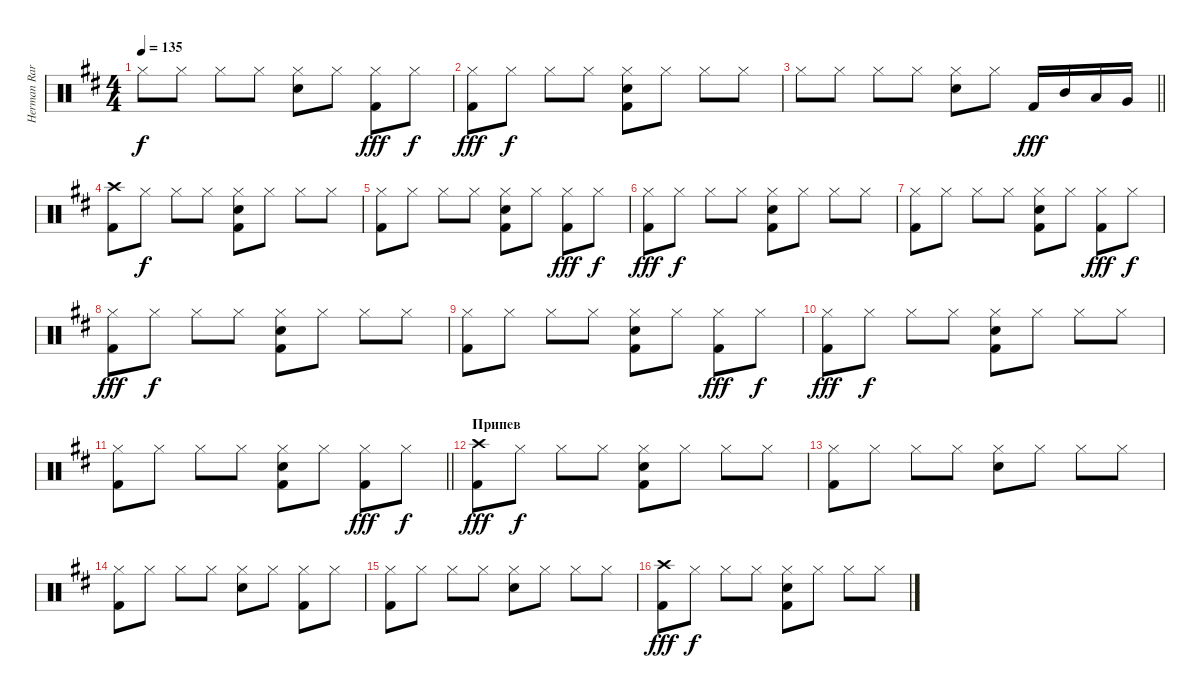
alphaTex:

\track ("Herman Rarebell" "Herman Rar") {instrument percussion}
\staff {score}
\articulation defaults
\ts (4 4)
\tempo 135
\clef neutral
\ks d "Hi-Hat (closed)".8{dy f} "Hi-Hat (closed)".8 "Hi-Hat (closed)".8 "Hi-Hat (closed)".8
("Hi-Hat (closed)" "Snare (hit) 2").8 "Hi-Hat (closed)".8 ("Hi-Hat (closed)" "Kick (hit) 2").8{dy fff} "Hi-Hat (closed)".8{dy f} |
("Hi-Hat (closed)" "Kick (hit) 2").8{dy fff} "Hi-Hat (closed)".8{dy f} "Hi-Hat (closed)".8 "Hi-Hat (closed)".8 ("Hi-Hat (closed)" "Snare (hit) 2" "Kick (hit) 2").8 "Hi-Hat (closed)".8 "Hi-Hat (closed)".8 "Hi-Hat (closed)".8 |
\barLineRight lightlight "Hi-Hat (closed)".8 "Hi-Hat (closed)".8 "Hi-Hat (closed)".8 "Hi-Hat (closed)".8
("Hi-Hat (closed)" "Snare (hit) 2").8 "Hi-Hat (closed)".8 "Kick (hit) 2".16{dy fff} "Mid Tom (hit)".16 "Low Tom (hit)".16 "Very Low Tom (hit)".16 |
("Crash high (hit)" "Kick (hit) 2").8 "Hi-Hat (closed)".8{dy f} "Hi-Hat (closed)".8 "Hi-Hat (closed)".8 ("Hi-Hat (closed)" "Snare (hit) 2" "Kick (hit) 2").8 "Hi-Hat (closed)".8 "Hi-Hat (closed)".8 "Hi-Hat (closed)".8 |
("Hi-Hat (closed)" "Kick (hit) 2").8 "Hi-Hat (closed)".8 "Hi-Hat (closed)".8 "Hi-Hat (closed)".8 ("Hi-Hat (closed)" "Snare (hit) 2" "Kick (hit) 2").8 "Hi-Hat (closed)".8 ("Hi-Hat (closed)" "Kick (hit) 2").8{dy fff} "Hi-Hat (closed)".8{dy f} |
("Hi-Hat (closed)" "Kick (hit) 2").8{dy fff} "Hi-Hat (closed)".8{dy f} "Hi-Hat (closed)".8 "Hi-Hat (closed)".8 ("Hi-Hat (closed)" "Snare (hit) 2" "Kick (hit) 2").8 "Hi-Hat (closed)".8 "Hi-Hat (closed)".8 "Hi-Hat (closed)".8 |
("Hi-Hat (closed)" "Kick (hit) 2").8 "Hi-Hat (closed)".8 "Hi-Hat (closed)".8 "Hi-Hat (closed)".8 ("Hi-Hat (closed)" "Snare (hit) 2" "Kick (hit) 2").8 "Hi-Hat (closed)".8 ("Hi-Hat (closed)" "Kick (hit) 2").8{dy fff} "Hi-Hat (closed)".8{dy f} |
("Hi-Hat (closed)" "Kick (hit) 2").8{dy fff} "Hi-Hat (closed)".8{dy f} "Hi-Hat (closed)".8 "Hi-Hat (closed)".8 ("Hi-Hat (closed)" "Snare (hit) 2" "Kick (hit) 2").8 "Hi-Hat (closed)".8 "Hi-Hat (closed)".8 "Hi-Hat (closed)".8 |
("Hi-Hat (closed)" "Kick (hit) 2").8 "Hi-Hat (closed)".8 "Hi-Hat (closed)".8 "Hi-Hat (closed)".8 ("Hi-Hat (closed)" "Snare (hit) 2" "Kick (hit) 2").8 "Hi-Hat (closed)".8 ("Hi-Hat (closed)" "Kick (hit) 2").8{dy fff} "Hi-Hat (closed)".8{dy f} |
("Hi-Hat (closed)" "Kick (hit) 2").8{dy fff} "Hi-Hat (closed)".8{dy f} "Hi-Hat (closed)".8 "Hi-Hat (closed)".8 ("Hi-Hat (closed)" "Snare (hit) 2" "Kick (hit) 2").8 "Hi-Hat (closed)".8 "Hi-Hat (closed)".8 "Hi-Hat (closed)".8 |
\barLineRight lightlight
("Hi-Hat (closed)" "Kick (hit) 2").8 "Hi-Hat (closed)".8 "Hi-Hat (closed)".8 "Hi-Hat (closed)".8 ("Hi-Hat (closed)" "Snare (hit) 2" "Kick (hit) 2").8 "Hi-Hat (closed)".8 ("Hi-Hat (closed)" "Kick (hit) 2").8{dy fff} "Hi-Hat (closed)".8{dy f} |
\section ("" "Припев")
("Crash high (hit)" "Kick (hit) 2").8{dy fff} "Hi-Hat (closed)".8{dy f} "Hi-Hat (closed)".8 "Hi-Hat (closed)".8 ("Hi-Hat (closed)" "Snare (hit) 2" "Kick (hit) 2").8 "Hi-Hat (closed)".8 "Hi-Hat (closed)".8 "Hi-Hat (closed)".8 |
("Hi-Hat (closed)" "Kick (hit) 2").8 "Hi-Hat (closed)".8 "Hi-Hat (closed)".8 "Hi-Hat (closed)".8 ("Hi-Hat (closed)" "Snare (hit) 2").8 "Hi-Hat (closed)".8 "Hi-Hat (closed)".8 "Hi-Hat (closed)".8 |
("Hi-Hat (closed)" "Kick (hit) 2").8 "Hi-Hat (closed)".8 "Hi-Hat (closed)".8 "Hi-Hat (closed)".8 ("Hi-Hat (closed)" "Snare (hit) 2").8 "Hi-Hat (closed)".8 ("Hi-Hat (closed)" "Kick (hit) 2").8 "Hi-Hat (closed)".8 |
("Hi-Hat (closed)" "Kick (hit) 2").8 "Hi-Hat (closed)".8 "Hi-Hat (closed)".8 "Hi-Hat (closed)".8 ("Hi-Hat (closed)" "Snare (hit) 2").8 "Hi-Hat (closed)".8 "Hi-Hat (closed)".8 "Hi-Hat (closed)".8 |
("Crash high (hit)" "Kick (hit) 2").8{dy fff} "Hi-Hat (closed)".8{dy f} "Hi-Hat (closed)".8 "Hi-Hat (closed)".8 ("Hi-Hat (closed)" "Snare (hit) 2" "Kick (hit) 2").8 "Hi-Hat (closed)".8 "Hi-Hat (closed)".8 "Hi-Hat (closed)".8
